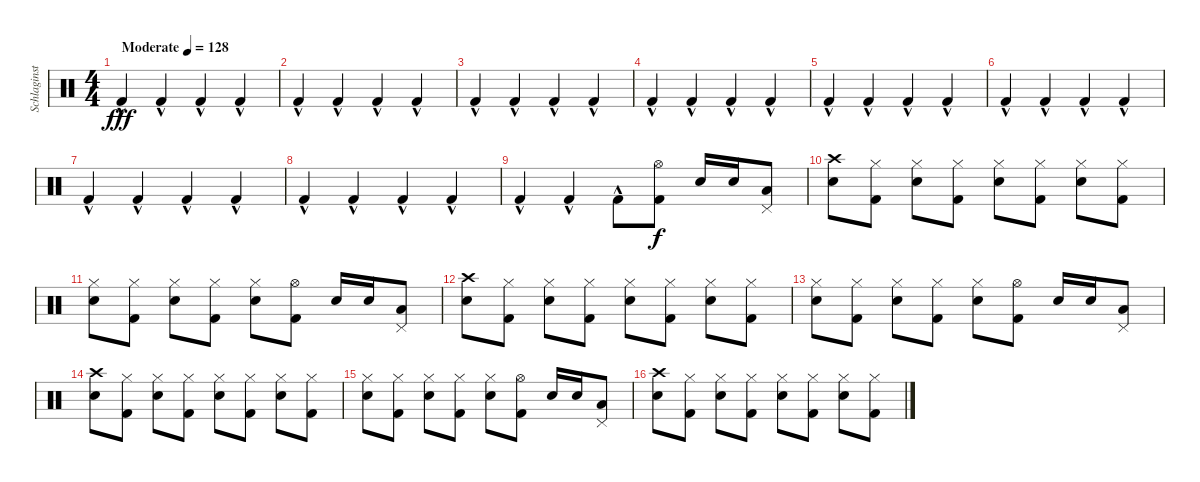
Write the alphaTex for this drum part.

\track ("Schlaginstrumente - Auswahl" "Schlaginst") {instrument percussion}
\staff {score}
\articulation defaults
\ts (4 4)
\tempo (128 "Moderate")
\clef neutral
\ks c "Kick (hit) 2"{hac}.4{dy fff} "Kick (hit) 2"{hac}.4 "Kick (hit) 2"{hac}.4 "Kick (hit) 2"{hac}.4
|
"Kick (hit) 2"{hac}.4 "Kick (hit) 2"{hac}.4 "Kick (hit) 2"{hac}.4 "Kick (hit) 2"{hac}.4 |
"Kick (hit) 2"{hac}.4 "Kick (hit) 2"{hac}.4 "Kick (hit) 2"{hac}.4 "Kick (hit) 2"{hac}.4 |
"Kick (hit) 2"{hac}.4 "Kick (hit) 2"{hac}.4 "Kick (hit) 2"{hac}.4 "Kick (hit) 2"{hac}.4 |
"Kick (hit) 2"{hac}.4 "Kick (hit) 2"{hac}.4 "Kick (hit) 2"{hac}.4 "Kick (hit) 2"{hac}.4 |
"Kick (hit) 2"{hac}.4 "Kick (hit) 2"{hac}.4 "Kick (hit) 2"{hac}.4 "Kick (hit) 2"{hac}.4 |
"Kick (hit) 2"{hac}.4 "Kick (hit) 2"{hac}.4 "Kick (hit) 2"{hac}.4 "Kick (hit) 2"{hac}.4 |
"Kick (hit) 2"{hac}.4 "Kick (hit) 2"{hac}.4 "Kick (hit) 2"{hac}.4 "Kick (hit) 2"{hac}.4 |
"Kick (hit) 2"{hac}.4 "Kick (hit) 2"{hac}.4 "Kick (hit) 2"{hac}.8 ("Hi-Hat (open)" "Kick (hit) 2").8{dy f} "Snare (hit) 2".16 "Snare (hit) 2".16 ("Pedal Hi-Hat (hit)" "Low Tom (hit)").8 |
("Crash high (hit)" "Snare (hit) 2").8 ("Hi-Hat (closed)" "Kick (hit) 2").8 ("Hi-Hat (closed)" "Snare (hit) 2").8 ("Hi-Hat (closed)" "Kick (hit) 2").8 ("Hi-Hat (closed)" "Snare (hit) 2").8 ("Hi-Hat (closed)" "Kick (hit) 2").8 ("Hi-Hat (closed)" "Snare (hit) 2").8 ("Hi-Hat (closed)" "Kick (hit) 2").8 |
("Hi-Hat (closed)" "Snare (hit) 2").8 ("Hi-Hat (closed)" "Kick (hit) 2").8 ("Hi-Hat (closed)" "Snare (hit) 2").8 ("Hi-Hat (closed)" "Kick (hit) 2").8 ("Hi-Hat (closed)" "Snare (hit) 2").8 ("Hi-Hat (open)" "Kick (hit) 2").8 "Snare (hit) 2".16 "Snare (hit) 2".16 ("Pedal Hi-Hat (hit)" "Low Tom (hit)").8 |
("Crash high (hit)" "Snare (hit) 2").8 ("Hi-Hat (closed)" "Kick (hit) 2").8 ("Hi-Hat (closed)" "Snare (hit) 2").8 ("Hi-Hat (closed)" "Kick (hit) 2").8 ("Hi-Hat (closed)" "Snare (hit) 2").8 ("Hi-Hat (closed)" "Kick (hit) 2").8 ("Hi-Hat (closed)" "Snare (hit) 2").8 ("Hi-Hat (closed)" "Kick (hit) 2").8 |
("Hi-Hat (closed)" "Snare (hit) 2").8 ("Hi-Hat (closed)" "Kick (hit) 2").8 ("Hi-Hat (closed)" "Snare (hit) 2").8 ("Hi-Hat (closed)" "Kick (hit) 2").8 ("Hi-Hat (closed)" "Snare (hit) 2").8 ("Hi-Hat (open)" "Kick (hit) 2").8 "Snare (hit) 2".16 "Snare (hit) 2".16 ("Pedal Hi-Hat (hit)" "Low Tom (hit)").8 |
("Crash high (hit)" "Snare (hit) 2").8 ("Hi-Hat (closed)" "Kick (hit) 2").8 ("Hi-Hat (closed)" "Snare (hit) 2").8 ("Hi-Hat (closed)" "Kick (hit) 2").8 ("Hi-Hat (closed)" "Snare (hit) 2").8 ("Hi-Hat (closed)" "Kick (hit) 2").8 ("Hi-Hat (closed)" "Snare (hit) 2").8 ("Hi-Hat (closed)" "Kick (hit) 2").8 |
("Hi-Hat (closed)" "Snare (hit) 2").8 ("Hi-Hat (closed)" "Kick (hit) 2").8 ("Hi-Hat (closed)" "Snare (hit) 2").8 ("Hi-Hat (closed)" "Kick (hit) 2").8 ("Hi-Hat (closed)" "Snare (hit) 2").8 ("Hi-Hat (open)" "Kick (hit) 2").8 "Snare (hit) 2".16 "Snare (hit) 2".16 ("Pedal Hi-Hat (hit)" "Low Tom (hit)").8 |
("Crash high (hit)" "Snare (hit) 2").8 ("Hi-Hat (closed)" "Kick (hit) 2").8 ("Hi-Hat (closed)" "Snare (hit) 2").8 ("Hi-Hat (closed)" "Kick (hit) 2").8 ("Hi-Hat (closed)" "Snare (hit) 2").8 ("Hi-Hat (closed)" "Kick (hit) 2").8 ("Hi-Hat (closed)" "Snare (hit) 2").8 ("Hi-Hat (closed)" "Kick (hit) 2").8
